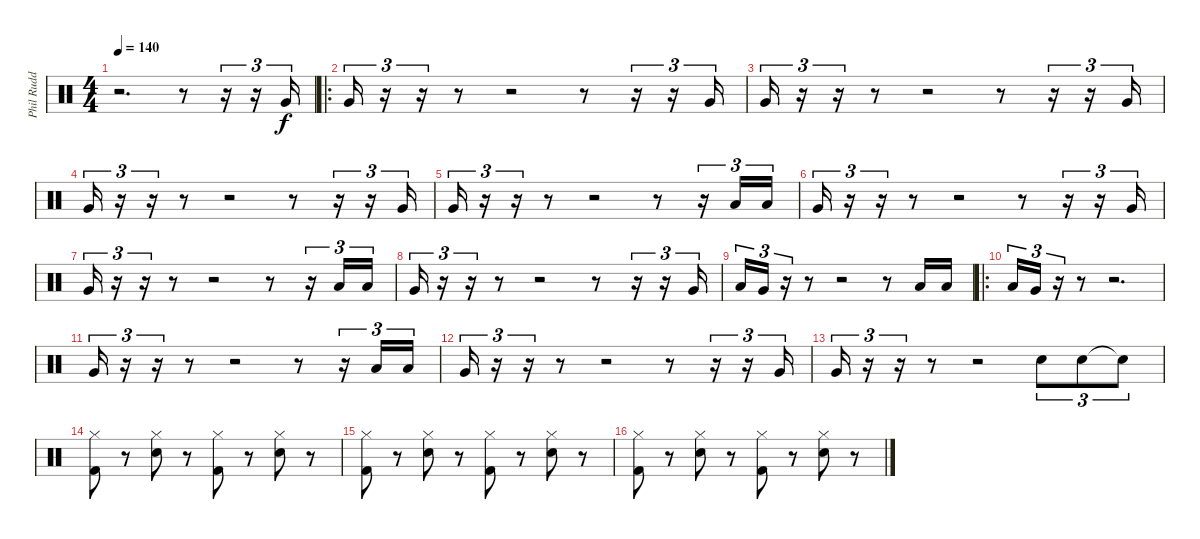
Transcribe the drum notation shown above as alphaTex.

\track ("Phil Rudd" "Phil Rudd") {instrument percussion}
\staff {score}
\articulation defaults
\ts (4 4)
\tempo 140
\clef neutral
\ks c
r.2{d dy f} r.8 r.16{tu (3 2)} r.16{tu (3 2)} "Very Low Tom (hit)".16{tu (3 2)} |
\ro "Very Low Tom (hit)".16{tu (3 2)}
r.16{tu (3 2)} r.16{tu (3 2)} r.8 r.2 r.8 r.16{tu (3 2)} r.16{tu (3 2)} "Very Low Tom (hit)".16{tu (3 2)} |
"Very Low Tom (hit)".16{tu (3 2)} r.16{tu (3 2)} r.16{tu (3 2)} r.8 r.2 r.8 r.16{tu (3 2)} r.16{tu (3 2)} "Very Low Tom (hit)".16{tu (3 2)} |
"Very Low Tom (hit)".16{tu (3 2)} r.16{tu (3 2)} r.16{tu (3 2)} r.8 r.2 r.8 r.16{tu (3 2)} r.16{tu (3 2)} "Very Low Tom (hit)".16{tu (3 2)} |
"Very Low Tom (hit)".16{tu (3 2)} r.16{tu (3 2)} r.16{tu (3 2)} r.8 r.2 r.8 r.16{tu (3 2)} "Low Tom (hit)".16{tu (3 2)} "Low Tom (hit)".16{tu (3 2)} |
"Very Low Tom (hit)".16{tu (3 2)} r.16{tu (3 2)} r.16{tu (3 2)} r.8 r.2 r.8 r.16{tu (3 2)} r.16{tu (3 2)} "Very Low Tom (hit)".16{tu (3 2)} |
"Very Low Tom (hit)".16{tu (3 2)} r.16{tu (3 2)} r.16{tu (3 2)} r.8 r.2 r.8 r.16{tu (3 2)} "Low Tom (hit)".16{tu (3 2)} "Low Tom (hit)".16{tu (3 2)} |
"Very Low Tom (hit)".16{tu (3 2)} r.16{tu (3 2)} r.16{tu (3 2)} r.8 r.2 r.8 r.16{tu (3 2)} r.16{tu (3 2)} "Very Low Tom (hit)".16{tu (3 2)} |
"Low Floor Tom (hit)".16{tu (3 2)} "Very Low Tom (hit)".16{tu (3 2)} r.16{tu (3 2)} r.8 r.2 r.8 "Low Tom (hit)".16 "Low Tom (hit)".16 |
\ro "Low Floor Tom (hit)".16{tu (3 2)} "Very Low Tom (hit)".16{tu (3 2)}
r.16{tu (3 2)} r.8 r.2{d} |
"Very Low Tom (hit)".16{tu (3 2)} r.16{tu (3 2)} r.16{tu (3 2)} r.8 r.2 r.8 r.16{tu (3 2)} "Low Tom (hit)".16{tu (3 2)} "Low Tom (hit)".16{tu (3 2)} |
"Very Low Tom (hit)".16{tu (3 2)} r.16{tu (3 2)} r.16{tu (3 2)} r.8 r.2 r.8 r.16{tu (3 2)} r.16{tu (3 2)} "Very Low Tom (hit)".16{tu (3 2)} |
"Very Low Tom (hit)".16{tu (3 2)} r.16{tu (3 2)} r.16{tu (3 2)} r.8 r.2 "Electric Snare (hit)".8{tu (3 2)} "Electric Snare (hit)".8{tu (3 2)} "Snare (hit)"{t}.8{tu (3 2)} |
("Hi-Hat (closed)" "Kick (hit) 2").8 r.8 ("Hi-Hat (closed)" "Snare (hit) 2").8 r.8 ("Hi-Hat (closed)" "Kick (hit) 2").8 r.8 ("Hi-Hat (closed)" "Snare (hit) 2").8 r.8 |
("Hi-Hat (closed)" "Kick (hit) 2").8 r.8 ("Hi-Hat (closed)" "Snare (hit) 2").8 r.8 ("Hi-Hat (closed)" "Kick (hit) 2").8 r.8 ("Hi-Hat (closed)" "Snare (hit) 2").8 r.8 |
("Hi-Hat (closed)" "Kick (hit) 2").8 r.8 ("Hi-Hat (closed)" "Snare (hit) 2").8 r.8 ("Hi-Hat (closed)" "Kick (hit) 2").8 r.8 ("Hi-Hat (closed)" "Snare (hit) 2").8 r.8
